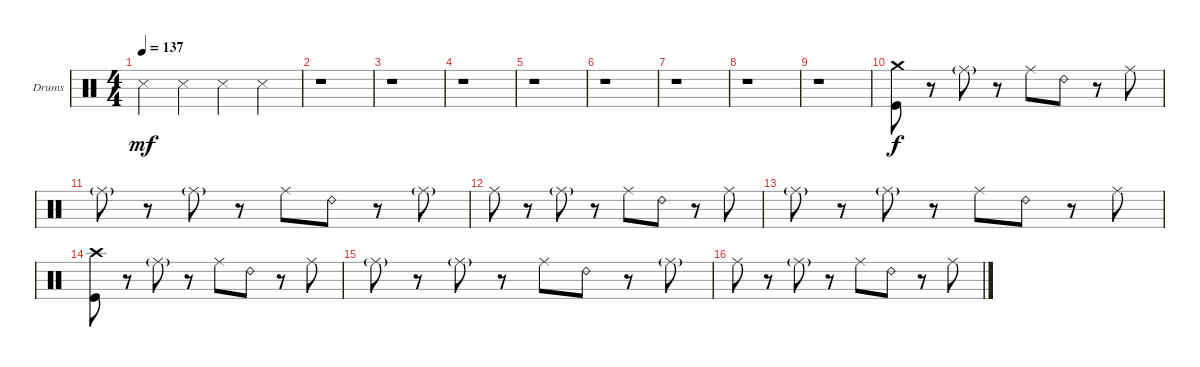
\defaultSystemsLayout 4
\bracketExtendMode groupsimilarinstruments
\firstSystemTrackNameOrientation horizontal
\otherSystemsTrackNameOrientation horizontal
\track ("Valverde Drums" "Drums") {instrument percussion}
\staff {score}
\articulation defaults
\ts (4 4)
\tempo 137
\clef neutral
\ks c "Snare (side stick) 3".4{dy mf} "Snare (side stick) 3".4 "Snare (side stick) 3".4 "Snare (side stick) 3".4
|
r.1 |
r.1 |
r.1 |
r.1 |
r.1 |
r.1 |
r.1 |
r.1 |
("Crash medium (hit)" "Kick (hit)").8{dy f} r.8 "Ride (middle)"{g}.8 r.8 "Ride (middle)".8 "Ride (bell) 2".8 r.8 "Ride (middle)".8 |
"Ride (middle)"{g}.8 r.8 "Ride (middle)"{g}.8 r.8 "Ride (middle)".8 "Ride (bell) 2".8 r.8 "Ride (middle)"{g}.8 |
"Ride (middle)".8 r.8 "Ride (middle)"{g}.8 r.8 "Ride (middle)".8 "Ride (bell) 2".8 r.8 "Ride (middle)".8 |
"Ride (middle)"{g}.8 r.8 "Ride (middle)"{g}.8 r.8 "Ride (middle)".8 "Ride (bell) 2".8 r.8 "Ride (middle)".8 |
("Kick (hit)" "Crash high (hit)").8 r.8 "Ride (middle)"{g}.8 r.8 "Ride (middle)".8 "Ride (bell) 2".8 r.8 "Ride (middle)".8 |
"Ride (middle)"{g}.8 r.8 "Ride (middle)"{g}.8 r.8 "Ride (middle)".8 "Ride (bell) 2".8 r.8 "Ride (middle)"{g}.8 |
"Ride (middle)".8 r.8 "Ride (middle)"{g}.8 r.8 "Ride (middle)".8 "Ride (bell) 2".8 r.8 "Ride (middle)".8
